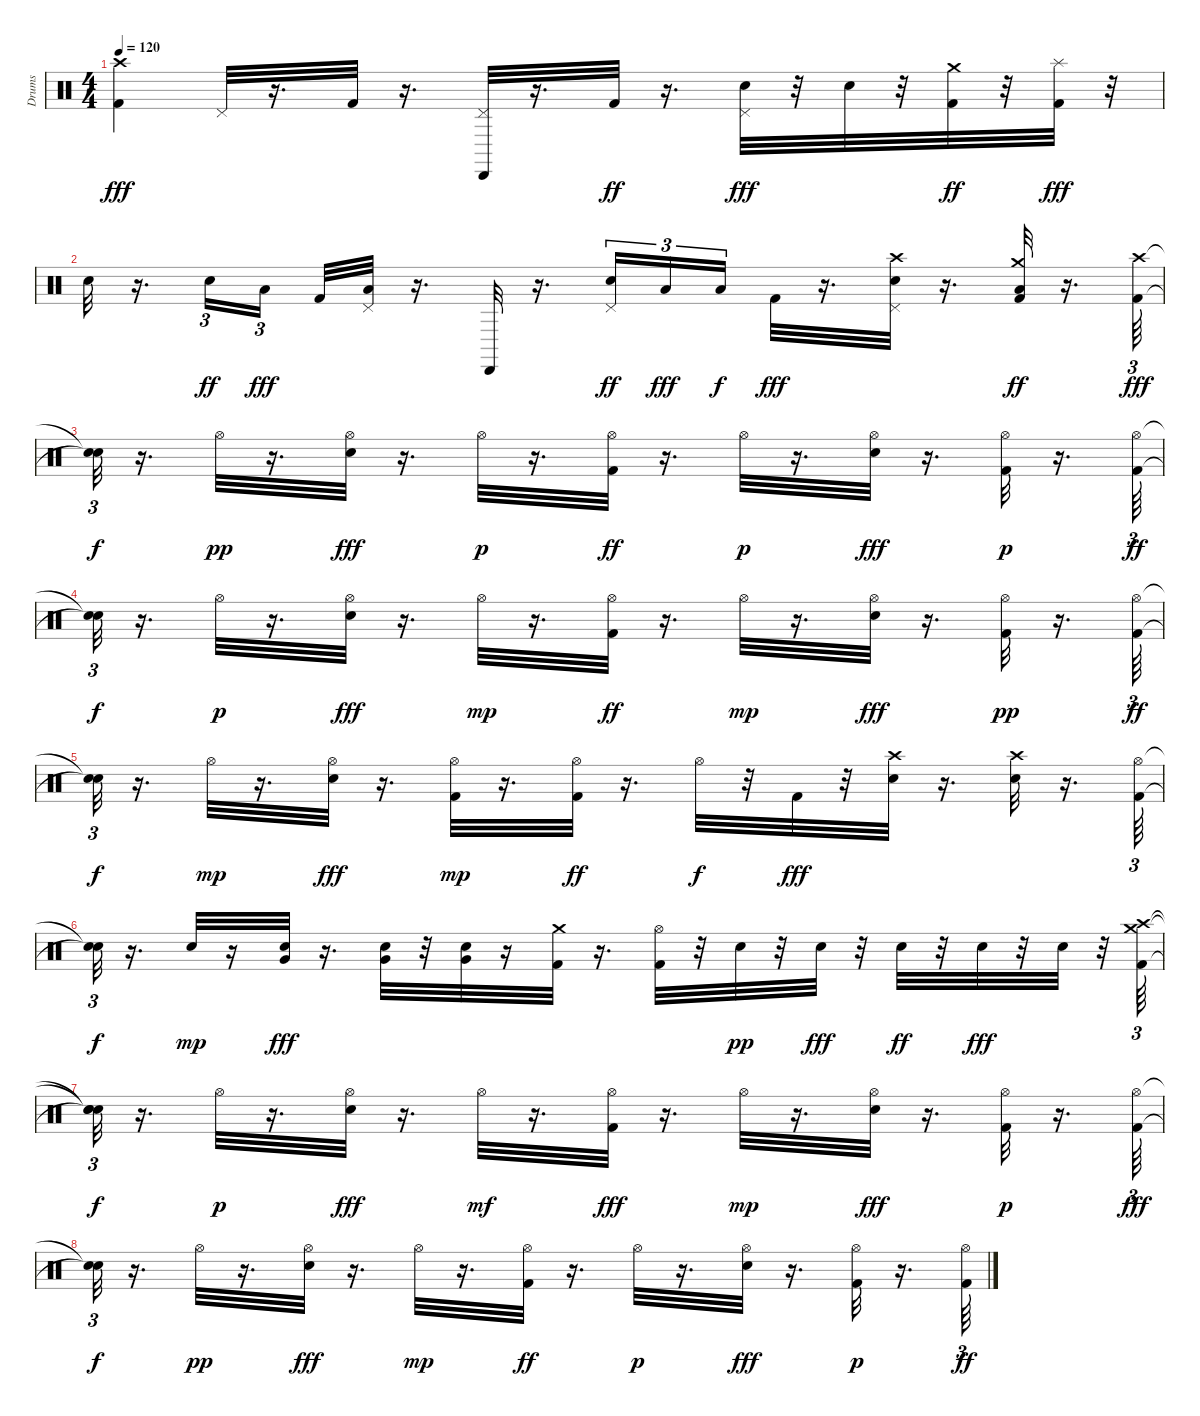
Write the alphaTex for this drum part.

\track ("Drums" "Drums") {instrument percussion}
\staff {score}
\articulation defaults
\ts (4 4)
\tempo 120
\clef neutral
\ks c
("Crash high (hit)" "Kick (hit) 2").4{dy fff} "Pedal Hi-Hat (hit)".32 r.16{d} "Kick (hit) 2".32 r.16{d} ("Cabasa (hit)" "Pedal Hi-Hat (hit)").32 r.16{d} "Kick (hit) 2".32{dy ff} r.16{d} ("Pedal Hi-Hat (hit)" "Snare (hit) 2").32{dy fff} r.32 "Snare (hit) 2".32 r.32 ("Crash medium (hit)" "Kick (hit) 2").32{dy ff} r.32 ("Splash (hit)" "Kick (hit) 2").32{dy fff} r.32 |
"Snare (hit) 2".32 r.16{d} "Snare (hit) 2".16{tu (3 2) dy ff} "Low Tom (hit)".16{tu (3 2) dy fff beam splitsecondary} "Kick (hit) 2".32 ("Pedal Hi-Hat (hit)" "Low Floor Tom (hit)").32 r.16{d} "Cabasa (hit)".32 r.16{d} ("Pedal Hi-Hat (hit)" "Snare (hit) 2").16{tu (3 2) dy ff} "Low Tom (hit)".16{tu (3 2) dy fff} "Low Floor Tom (hit)".16{tu (3 2) dy f beam splitsecondary} "Kick (hit) 2".32{dy fff} r.16{d} ("Pedal Hi-Hat (hit)" "Snare (hit) 2" "Crash high (hit)").32 r.16{d} ("Crash medium (hit)" "Low Tom (hit)" "Kick (hit) 2").32{dy ff} r.16{d} ("Crash high (hit)" "Kick (hit) 2").64{tu (3 2) dy fff} |
("Snare (hit)"{t} "Snare (hit)"{t}).32{tu (3 2) dy f} r.16{d} "Hi-Hat (open)".32{dy pp} r.16{d} ("Snare (hit) 2" "Hi-Hat (open)").32{dy fff} r.16{d} "Hi-Hat (open)".32{dy p} r.16{d} ("Kick (hit) 2" "Hi-Hat (open)").32{dy ff} r.16{d} "Hi-Hat (open)".32{dy p} r.16{d} ("Snare (hit) 2" "Hi-Hat (open)").32{dy fff} r.16{d} ("Kick (hit) 2" "Hi-Hat (open)").32{dy p} r.16{d} ("Kick (hit) 2" "Hi-Hat (open)").64{tu (3 2) dy ff} |
("Snare (hit)"{t} "Snare (hit)"{t}).32{tu (3 2) dy f} r.16{d} "Hi-Hat (open)".32{dy p} r.16{d} ("Snare (hit) 2" "Hi-Hat (open)").32{dy fff} r.16{d} "Hi-Hat (open)".32{dy mp} r.16{d} ("Kick (hit) 2" "Hi-Hat (open)").32{dy ff} r.16{d} "Hi-Hat (open)".32{dy mp} r.16{d} ("Snare (hit) 2" "Hi-Hat (open)").32{dy fff} r.16{d} ("Kick (hit) 2" "Hi-Hat (open)").32{dy pp} r.16{d} ("Kick (hit) 2" "Hi-Hat (open)").64{tu (3 2) dy ff} |
("Snare (hit)"{t} "Snare (hit)"{t}).32{tu (3 2) dy f} r.16{d} "Hi-Hat (open)".32{dy mp} r.16{d} ("Snare (hit) 2" "Hi-Hat (open)").32{dy fff} r.16{d} ("Kick (hit) 2" "Hi-Hat (open)").32{dy mp} r.16{d} ("Kick (hit) 2" "Hi-Hat (open)").32{dy ff} r.16{d} "Hi-Hat (open)".32{dy f} r.32 "Kick (hit) 2".32{dy fff} r.32 ("Snare (hit) 2" "Crash high (hit)").32 r.16{d} ("Snare (hit) 2" "Crash high (hit)").32 r.16{d} ("Kick (hit) 2" "Hi-Hat (open)").64{tu (3 2)} |
("Snare (hit)"{t} "Snare (hit)"{t}).32{tu (3 2) dy f} r.16{d} "Snare (hit) 2".32{dy mp} r.16 ("Snare (hit) 2" "Very Low Tom (hit)").32{dy fff} r.16{d} ("Snare (hit) 2" "Very Low Tom (hit)").32 r.32 ("Snare (hit) 2" "Very Low Tom (hit)").32 r.16 ("Kick (hit) 2" "Crash medium (hit)").32 r.16{d} ("Kick (hit) 2" "Hi-Hat (open)").32 r.32 "Snare (hit) 2".32{dy pp} r.32 "Snare (hit) 2".32{dy fff} r.32 "Snare (hit) 2".32{dy ff} r.32 "Snare (hit) 2".32{dy fff} r.32 "Snare (hit) 2".32 r.32 ("Crash high (hit)" "Kick (hit) 2" "Crash medium (hit)").64{tu (3 2)} |
("Snare (hit)"{t} "Snare (hit)"{t} "Snare (hit)"{t}).32{tu (3 2) dy f} r.16{d} "Hi-Hat (open)".32{dy p} r.16{d} ("Snare (hit) 2" "Hi-Hat (open)").32{dy fff} r.16{d} "Hi-Hat (open)".32{dy mf} r.16{d} ("Hi-Hat (open)" "Kick (hit) 2").32{dy fff} r.16{d} "Hi-Hat (open)".32{dy mp} r.16{d} ("Snare (hit) 2" "Hi-Hat (open)").32{dy fff} r.16{d} ("Kick (hit) 2" "Hi-Hat (open)").32{dy p} r.16{d} ("Kick (hit) 2" "Hi-Hat (open)").64{tu (3 2) dy fff} |
("Snare (hit)"{t} "Snare (hit)"{t}).32{tu (3 2) dy f} r.16{d} "Hi-Hat (open)".32{dy pp} r.16{d} ("Snare (hit) 2" "Hi-Hat (open)").32{dy fff} r.16{d} "Hi-Hat (open)".32{dy mp} r.16{d} ("Kick (hit) 2" "Hi-Hat (open)").32{dy ff} r.16{d} "Hi-Hat (open)".32{dy p} r.16{d} ("Snare (hit) 2" "Hi-Hat (open)").32{dy fff} r.16{d} ("Kick (hit) 2" "Hi-Hat (open)").32{dy p} r.16{d} ("Kick (hit) 2" "Hi-Hat (open)").64{tu (3 2) dy ff}
